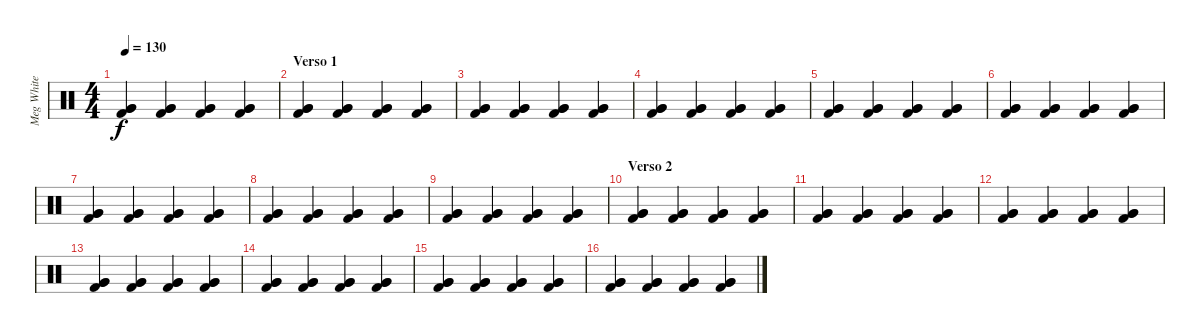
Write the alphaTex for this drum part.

\track ("Meg White" "Meg White") {instrument percussion}
\staff {score}
\articulation defaults
\ts (4 4)
\tempo 130
\clef neutral
\ks c
("Very Low Tom (hit)" "Kick (hit) 2" "Very Low Tom (hit)").4{dy f} ("Very Low Tom (hit)" "Kick (hit) 2" "Very Low Tom (hit)").4 ("Very Low Tom (hit)" "Kick (hit) 2" "Very Low Tom (hit)").4 ("Very Low Tom (hit)" "Kick (hit) 2" "Very Low Tom (hit)").4 |
\section ("" "Verso 1")
("Very Low Tom (hit)" "Kick (hit) 2" "Very Low Tom (hit)").4 ("Very Low Tom (hit)" "Kick (hit) 2" "Very Low Tom (hit)").4 ("Very Low Tom (hit)" "Kick (hit) 2" "Very Low Tom (hit)").4 ("Very Low Tom (hit)" "Kick (hit) 2" "Very Low Tom (hit)").4 |
("Very Low Tom (hit)" "Kick (hit) 2" "Very Low Tom (hit)").4 ("Very Low Tom (hit)" "Kick (hit) 2" "Very Low Tom (hit)").4 ("Very Low Tom (hit)" "Kick (hit) 2" "Very Low Tom (hit)").4 ("Very Low Tom (hit)" "Kick (hit) 2" "Very Low Tom (hit)").4 |
("Very Low Tom (hit)" "Kick (hit) 2" "Very Low Tom (hit)").4 ("Very Low Tom (hit)" "Kick (hit) 2" "Very Low Tom (hit)").4 ("Very Low Tom (hit)" "Kick (hit) 2" "Very Low Tom (hit)").4 ("Very Low Tom (hit)" "Kick (hit) 2" "Very Low Tom (hit)").4 |
("Very Low Tom (hit)" "Kick (hit) 2" "Very Low Tom (hit)").4 ("Very Low Tom (hit)" "Kick (hit) 2" "Very Low Tom (hit)").4 ("Very Low Tom (hit)" "Kick (hit) 2" "Very Low Tom (hit)").4 ("Very Low Tom (hit)" "Kick (hit) 2" "Very Low Tom (hit)").4 |
("Very Low Tom (hit)" "Kick (hit) 2" "Very Low Tom (hit)").4 ("Very Low Tom (hit)" "Kick (hit) 2" "Very Low Tom (hit)").4 ("Very Low Tom (hit)" "Kick (hit) 2" "Very Low Tom (hit)").4 ("Very Low Tom (hit)" "Kick (hit) 2" "Very Low Tom (hit)").4 |
("Very Low Tom (hit)" "Kick (hit) 2" "Very Low Tom (hit)").4 ("Very Low Tom (hit)" "Kick (hit) 2" "Very Low Tom (hit)").4 ("Very Low Tom (hit)" "Kick (hit) 2" "Very Low Tom (hit)").4 ("Very Low Tom (hit)" "Kick (hit) 2" "Very Low Tom (hit)").4 |
("Very Low Tom (hit)" "Kick (hit) 2" "Very Low Tom (hit)").4 ("Very Low Tom (hit)" "Kick (hit) 2" "Very Low Tom (hit)").4 ("Very Low Tom (hit)" "Kick (hit) 2" "Very Low Tom (hit)").4 ("Very Low Tom (hit)" "Kick (hit) 2" "Very Low Tom (hit)").4 |
("Very Low Tom (hit)" "Kick (hit) 2" "Very Low Tom (hit)").4 ("Very Low Tom (hit)" "Kick (hit) 2" "Very Low Tom (hit)").4 ("Very Low Tom (hit)" "Kick (hit) 2" "Very Low Tom (hit)").4 ("Very Low Tom (hit)" "Kick (hit) 2" "Very Low Tom (hit)").4 |
\section ("" "Verso 2")
("Very Low Tom (hit)" "Kick (hit) 2" "Very Low Tom (hit)").4 ("Very Low Tom (hit)" "Kick (hit) 2" "Very Low Tom (hit)").4 ("Very Low Tom (hit)" "Kick (hit) 2" "Very Low Tom (hit)").4 ("Very Low Tom (hit)" "Kick (hit) 2" "Very Low Tom (hit)").4 |
("Very Low Tom (hit)" "Kick (hit) 2" "Very Low Tom (hit)").4 ("Very Low Tom (hit)" "Kick (hit) 2" "Very Low Tom (hit)").4 ("Very Low Tom (hit)" "Kick (hit) 2" "Very Low Tom (hit)").4 ("Very Low Tom (hit)" "Kick (hit) 2" "Very Low Tom (hit)").4 |
("Very Low Tom (hit)" "Kick (hit) 2" "Very Low Tom (hit)").4 ("Very Low Tom (hit)" "Kick (hit) 2" "Very Low Tom (hit)").4 ("Very Low Tom (hit)" "Kick (hit) 2" "Very Low Tom (hit)").4 ("Very Low Tom (hit)" "Kick (hit) 2" "Very Low Tom (hit)").4 |
("Very Low Tom (hit)" "Kick (hit) 2" "Very Low Tom (hit)").4 ("Very Low Tom (hit)" "Kick (hit) 2" "Very Low Tom (hit)").4 ("Very Low Tom (hit)" "Kick (hit) 2" "Very Low Tom (hit)").4 ("Very Low Tom (hit)" "Kick (hit) 2" "Very Low Tom (hit)").4 |
("Very Low Tom (hit)" "Kick (hit) 2" "Very Low Tom (hit)").4 ("Very Low Tom (hit)" "Kick (hit) 2" "Very Low Tom (hit)").4 ("Very Low Tom (hit)" "Kick (hit) 2" "Very Low Tom (hit)").4 ("Very Low Tom (hit)" "Kick (hit) 2" "Very Low Tom (hit)").4 |
("Very Low Tom (hit)" "Kick (hit) 2" "Very Low Tom (hit)").4 ("Very Low Tom (hit)" "Kick (hit) 2" "Very Low Tom (hit)").4 ("Very Low Tom (hit)" "Kick (hit) 2" "Very Low Tom (hit)").4 ("Very Low Tom (hit)" "Kick (hit) 2" "Very Low Tom (hit)").4 |
("Very Low Tom (hit)" "Kick (hit) 2" "Very Low Tom (hit)").4 ("Very Low Tom (hit)" "Kick (hit) 2" "Very Low Tom (hit)").4 ("Very Low Tom (hit)" "Kick (hit) 2" "Very Low Tom (hit)").4 ("Very Low Tom (hit)" "Kick (hit) 2" "Very Low Tom (hit)").4
